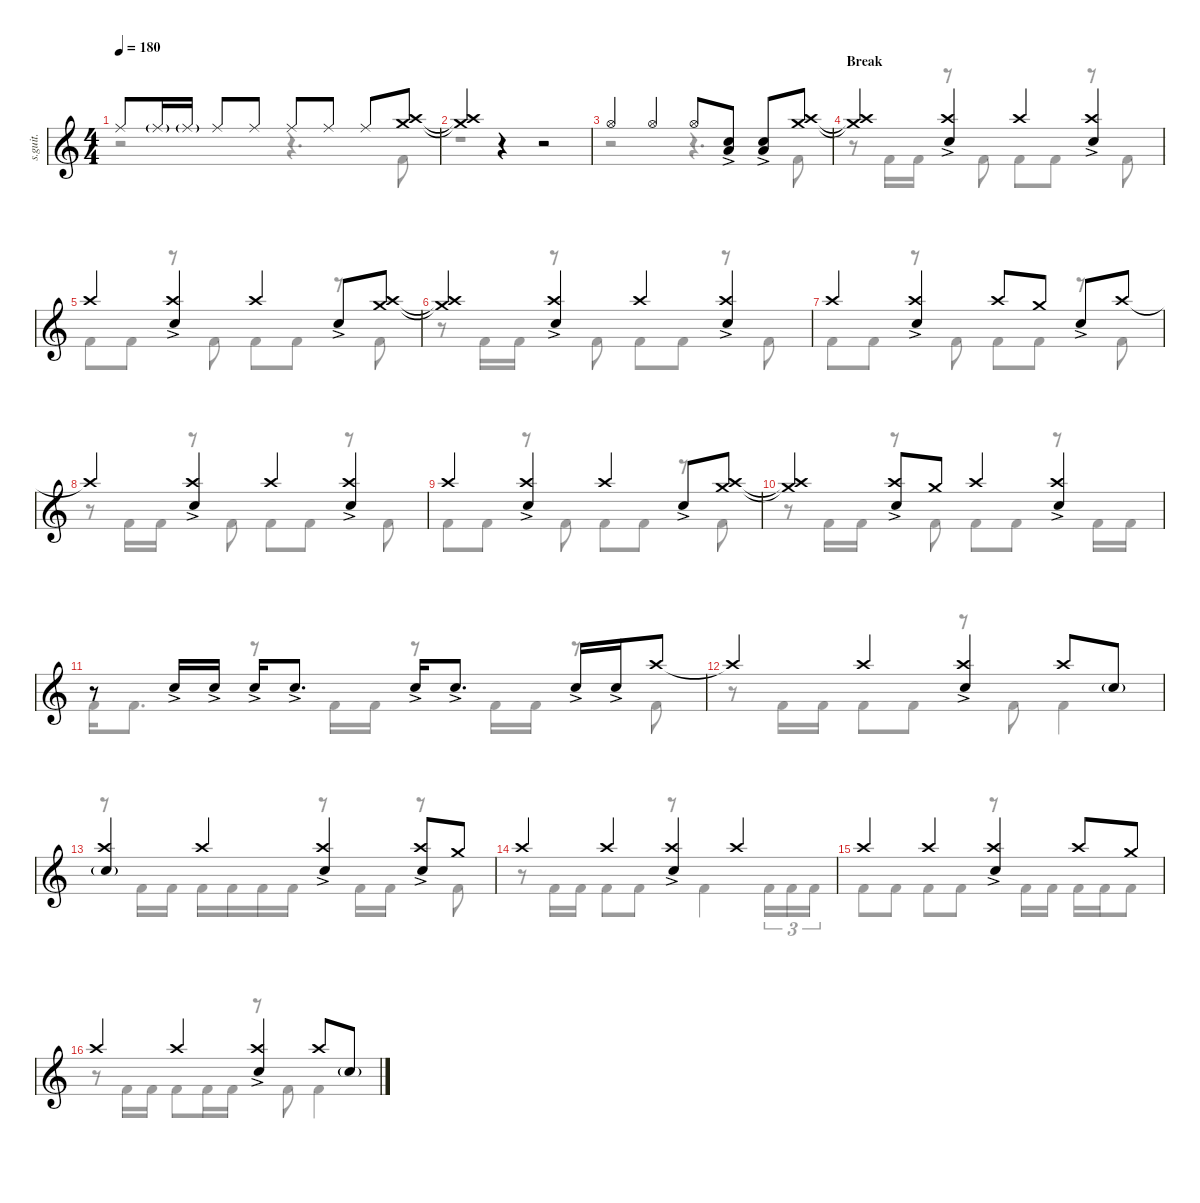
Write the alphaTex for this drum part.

\defaultSystemsLayout 4
\hideDynamics
\bracketExtendMode nobrackets
\track ("Percussion" "s.guit.") {instrument percussion}
\staff {score}
\articulation defaults
\voice
\ts (4 4)
\tempo 180
\clef g2
\ks c "Ride (middle)".8{lyrics (0 "") lyrics (1 "") lyrics (2 "") lyrics (3 "") lyrics (4 "") dy mp} "Ride (middle)"{g}.16{lyrics (0 "") lyrics (1 "") lyrics (2 "") lyrics (3 "") lyrics (4 "")} "Ride (middle)"{g}.16{lyrics (0 "") lyrics (1 "") lyrics (2 "") lyrics (3 "") lyrics (4 "")} "Ride (middle)".8{lyrics (0 "") lyrics (1 "") lyrics (2 "") lyrics (3 "") lyrics (4 "")} "Ride (middle)".8{lyrics (0 "") lyrics (1 "") lyrics (2 "") lyrics (3 "") lyrics (4 "")} "Ride (middle)".8{lyrics (0 "") lyrics (1 "") lyrics (2 "") lyrics (3 "") lyrics (4 "")} "Ride (middle)".8{lyrics (0 "") lyrics (1 "") lyrics (2 "") lyrics (3 "") lyrics (4 "")} "Ride (middle)".8{lyrics (0 "") lyrics (1 "") lyrics (2 "") lyrics (3 "") lyrics (4 "")}
("Crash high (hit)" "Crash medium (hit)").8{lyrics (0 "") lyrics (1 "") lyrics (2 "") lyrics (3 "") lyrics (4 "")} |
("Crash high (hit)"{t} "Crash medium (hit)"{t}).4{lyrics (0 "") lyrics (1 "") lyrics (2 "") lyrics (3 "") lyrics (4 "")} r.4 r.2 |
"Hi-Hat (open)".4{lyrics (0 "") lyrics (1 "") lyrics (2 "") lyrics (3 "") lyrics (4 "") dy f} "Hi-Hat (open)".4{lyrics (0 "") lyrics (1 "") lyrics (2 "") lyrics (3 "") lyrics (4 "")} "Hi-Hat (open)".8{lyrics (0 "") lyrics (1 "") lyrics (2 "") lyrics (3 "") lyrics (4 "")} ("Low Tom (hit)"{ac} "Snare (hit) 2"{ac}).8{lyrics (0 "") lyrics (1 "") lyrics (2 "") lyrics (3 "") lyrics (4 "")} ("Low Tom (hit)"{ac} "Snare (hit) 2"{ac}).8{lyrics (0 "") lyrics (1 "") lyrics (2 "") lyrics (3 "") lyrics (4 "")} ("Crash high (hit)" "Crash medium (hit)").8{lyrics (0 "") lyrics (1 "") lyrics (2 "") lyrics (3 "") lyrics (4 "")} |
\section ("" "Break")
("Crash high (hit)"{t} "Crash medium (hit)"{t}).4{lyrics (0 "") lyrics (1 "") lyrics (2 "") lyrics (3 "") lyrics (4 "")} ("Crash high (hit)" "Snare (hit) 2"{ac}).4{lyrics (0 "") lyrics (1 "") lyrics (2 "") lyrics (3 "") lyrics (4 "")} "Crash high (hit)".4{lyrics (0 "") lyrics (1 "") lyrics (2 "") lyrics (3 "") lyrics (4 "")} ("Crash high (hit)" "Snare (hit) 2"{ac}).4{lyrics (0 "") lyrics (1 "") lyrics (2 "") lyrics (3 "") lyrics (4 "")} |
"Crash high (hit)".4{lyrics (0 "") lyrics (1 "") lyrics (2 "") lyrics (3 "") lyrics (4 "")} ("Crash high (hit)" "Snare (hit) 2"{ac}).4{lyrics (0 "") lyrics (1 "") lyrics (2 "") lyrics (3 "") lyrics (4 "")} "Crash high (hit)".4{lyrics (0 "") lyrics (1 "") lyrics (2 "") lyrics (3 "") lyrics (4 "")} "Snare (hit) 2"{ac}.8{lyrics (0 "") lyrics (1 "") lyrics (2 "") lyrics (3 "") lyrics (4 "")} ("Crash high (hit)" "Crash medium (hit)").8{lyrics (0 "") lyrics (1 "") lyrics (2 "") lyrics (3 "") lyrics (4 "")} |
("Crash high (hit)"{t} "Crash medium (hit)"{t}).4{lyrics (0 "") lyrics (1 "") lyrics (2 "") lyrics (3 "") lyrics (4 "")} ("Crash high (hit)" "Snare (hit) 2"{ac}).4{lyrics (0 "") lyrics (1 "") lyrics (2 "") lyrics (3 "") lyrics (4 "")} "Crash high (hit)".4{lyrics (0 "") lyrics (1 "") lyrics (2 "") lyrics (3 "") lyrics (4 "")} ("Crash high (hit)" "Snare (hit) 2"{ac}).4{lyrics (0 "") lyrics (1 "") lyrics (2 "") lyrics (3 "") lyrics (4 "")} |
"Crash high (hit)".4{lyrics (0 "") lyrics (1 "") lyrics (2 "") lyrics (3 "") lyrics (4 "")} ("Crash high (hit)" "Snare (hit) 2"{ac}).4{lyrics (0 "") lyrics (1 "") lyrics (2 "") lyrics (3 "") lyrics (4 "")} "Crash high (hit)".8{lyrics (0 "") lyrics (1 "") lyrics (2 "") lyrics (3 "") lyrics (4 "")} "Crash medium (hit)".8{lyrics (0 "") lyrics (1 "") lyrics (2 "") lyrics (3 "") lyrics (4 "")} "Snare (hit) 2"{ac}.8{lyrics (0 "") lyrics (1 "") lyrics (2 "") lyrics (3 "") lyrics (4 "")} "Crash high (hit)".8{lyrics (0 "") lyrics (1 "") lyrics (2 "") lyrics (3 "") lyrics (4 "")} |
"Crash high (hit)"{t}.4{lyrics (0 "") lyrics (1 "") lyrics (2 "") lyrics (3 "") lyrics (4 "")} ("Crash high (hit)" "Snare (hit) 2"{ac}).4{lyrics (0 "") lyrics (1 "") lyrics (2 "") lyrics (3 "") lyrics (4 "")} "Crash high (hit)".4{lyrics (0 "") lyrics (1 "") lyrics (2 "") lyrics (3 "") lyrics (4 "")} ("Crash high (hit)" "Snare (hit) 2"{ac}).4{lyrics (0 "") lyrics (1 "") lyrics (2 "") lyrics (3 "") lyrics (4 "")} |
"Crash high (hit)".4{lyrics (0 "") lyrics (1 "") lyrics (2 "") lyrics (3 "") lyrics (4 "")} ("Crash high (hit)" "Snare (hit) 2"{ac}).4{lyrics (0 "") lyrics (1 "") lyrics (2 "") lyrics (3 "") lyrics (4 "")} "Crash high (hit)".4{lyrics (0 "") lyrics (1 "") lyrics (2 "") lyrics (3 "") lyrics (4 "")} "Snare (hit) 2"{ac}.8{lyrics (0 "") lyrics (1 "") lyrics (2 "") lyrics (3 "") lyrics (4 "")} ("Crash high (hit)" "Crash medium (hit)").8{lyrics (0 "") lyrics (1 "") lyrics (2 "") lyrics (3 "") lyrics (4 "")} |
("Crash high (hit)"{t} "Crash medium (hit)"{t}).4{lyrics (0 "") lyrics (1 "") lyrics (2 "") lyrics (3 "") lyrics (4 "")} ("Crash high (hit)" "Snare (hit) 2"{ac}).8{lyrics (0 "") lyrics (1 "") lyrics (2 "") lyrics (3 "") lyrics (4 "")} "Crash medium (hit)".8{lyrics (0 "") lyrics (1 "") lyrics (2 "") lyrics (3 "") lyrics (4 "")} "Crash high (hit)".4{lyrics (0 "") lyrics (1 "") lyrics (2 "") lyrics (3 "") lyrics (4 "")} ("Snare (hit) 2"{ac} "Crash high (hit)").4{lyrics (0 "") lyrics (1 "") lyrics (2 "") lyrics (3 "") lyrics (4 "")} |
r.8 "Snare (hit) 2"{ac}.16{lyrics (0 "") lyrics (1 "") lyrics (2 "") lyrics (3 "") lyrics (4 "")} "Snare (hit) 2"{ac}.16{lyrics (0 "") lyrics (1 "") lyrics (2 "") lyrics (3 "") lyrics (4 "")} "Snare (hit) 2"{ac}.16{lyrics (0 "") lyrics (1 "") lyrics (2 "") lyrics (3 "") lyrics (4 "")} "Snare (hit) 2"{ac}.8{d lyrics (0 "") lyrics (1 "") lyrics (2 "") lyrics (3 "") lyrics (4 "")} "Snare (hit) 2"{ac}.16{lyrics (0 "") lyrics (1 "") lyrics (2 "") lyrics (3 "") lyrics (4 "")} "Snare (hit) 2"{ac}.8{d lyrics (0 "") lyrics (1 "") lyrics (2 "") lyrics (3 "") lyrics (4 "")} "Snare (hit) 2"{ac}.16{lyrics (0 "") lyrics (1 "") lyrics (2 "") lyrics (3 "") lyrics (4 "")} "Snare (hit) 2"{ac}.16{lyrics (0 "") lyrics (1 "") lyrics (2 "") lyrics (3 "") lyrics (4 "")} "Crash high (hit)".8{lyrics (0 "") lyrics (1 "") lyrics (2 "") lyrics (3 "") lyrics (4 "")} |
"Crash high (hit)"{t}.4{lyrics (0 "") lyrics (1 "") lyrics (2 "") lyrics (3 "") lyrics (4 "")} "Crash high (hit)".4{lyrics (0 "") lyrics (1 "") lyrics (2 "") lyrics (3 "") lyrics (4 "")} ("Snare (hit) 2"{ac} "Crash high (hit)").4{lyrics (0 "") lyrics (1 "") lyrics (2 "") lyrics (3 "") lyrics (4 "")} "Crash high (hit)".8{lyrics (0 "") lyrics (1 "") lyrics (2 "") lyrics (3 "") lyrics (4 "")} "Snare (hit) 2"{g}.8{lyrics (0 "") lyrics (1 "") lyrics (2 "") lyrics (3 "") lyrics (4 "")} |
("Snare (hit) 2"{g} "Crash high (hit)").4{lyrics (0 "") lyrics (1 "") lyrics (2 "") lyrics (3 "") lyrics (4 "")} "Crash high (hit)".4{lyrics (0 "") lyrics (1 "") lyrics (2 "") lyrics (3 "") lyrics (4 "")} ("Crash high (hit)" "Snare (hit) 2"{ac}).4{lyrics (0 "") lyrics (1 "") lyrics (2 "") lyrics (3 "") lyrics (4 "")} ("Crash high (hit)" "Snare (hit) 2"{ac}).8{lyrics (0 "") lyrics (1 "") lyrics (2 "") lyrics (3 "") lyrics (4 "")} "Crash medium (hit)".8{lyrics (0 "") lyrics (1 "") lyrics (2 "") lyrics (3 "") lyrics (4 "")} |
"Crash high (hit)".4{lyrics (0 "") lyrics (1 "") lyrics (2 "") lyrics (3 "") lyrics (4 "")} "Crash high (hit)".4{lyrics (0 "") lyrics (1 "") lyrics (2 "") lyrics (3 "") lyrics (4 "")} ("Crash high (hit)" "Snare (hit) 2"{ac}).4{lyrics (0 "") lyrics (1 "") lyrics (2 "") lyrics (3 "") lyrics (4 "")} "Crash high (hit)".4{lyrics (0 "") lyrics (1 "") lyrics (2 "") lyrics (3 "") lyrics (4 "")} |
"Crash high (hit)".4{lyrics (0 "") lyrics (1 "") lyrics (2 "") lyrics (3 "") lyrics (4 "")} "Crash high (hit)".4{lyrics (0 "") lyrics (1 "") lyrics (2 "") lyrics (3 "") lyrics (4 "")} ("Crash high (hit)" "Snare (hit) 2"{ac}).4{lyrics (0 "") lyrics (1 "") lyrics (2 "") lyrics (3 "") lyrics (4 "")} "Crash high (hit)".8{lyrics (0 "") lyrics (1 "") lyrics (2 "") lyrics (3 "") lyrics (4 "")} "Crash medium (hit)".8{lyrics (0 "") lyrics (1 "") lyrics (2 "") lyrics (3 "") lyrics (4 "")} |
"Crash high (hit)".4{lyrics (0 "") lyrics (1 "") lyrics (2 "") lyrics (3 "") lyrics (4 "")} "Crash high (hit)".4{lyrics (0 "") lyrics (1 "") lyrics (2 "") lyrics (3 "") lyrics (4 "")} ("Snare (hit) 2"{ac} "Crash high (hit)").4{lyrics (0 "") lyrics (1 "") lyrics (2 "") lyrics (3 "") lyrics (4 "")} "Crash high (hit)".8{lyrics (0 "") lyrics (1 "") lyrics (2 "") lyrics (3 "") lyrics (4 "")} "Snare (hit) 2"{g}.8{lyrics (0 "") lyrics (1 "") lyrics (2 "") lyrics (3 "") lyrics (4 "")}
\voice
\clef g2
\ottava regular
\simile none
\ks c
r.2{dy mp} r.4{d} "Kick (hit) 2".8{lyrics (0 "") lyrics (1 "") lyrics (2 "") lyrics (3 "") lyrics (4 "")} |
r.1 |
r.2 r.4{d} "Kick (hit) 2".8{lyrics (0 "") lyrics (1 "") lyrics (2 "") lyrics (3 "") lyrics (4 "") dy f} |
r.8 "Kick (hit) 2".16{lyrics (0 "") lyrics (1 "") lyrics (2 "") lyrics (3 "") lyrics (4 "")} "Kick (hit) 2".16{lyrics (0 "") lyrics (1 "") lyrics (2 "") lyrics (3 "") lyrics (4 "")} r.8 "Kick (hit) 2".8{lyrics (0 "") lyrics (1 "") lyrics (2 "") lyrics (3 "") lyrics (4 "")} "Kick (hit) 2".8{lyrics (0 "") lyrics (1 "") lyrics (2 "") lyrics (3 "") lyrics (4 "")} "Kick (hit) 2".8{lyrics (0 "") lyrics (1 "") lyrics (2 "") lyrics (3 "") lyrics (4 "")} r.8 "Kick (hit) 2".8{lyrics (0 "") lyrics (1 "") lyrics (2 "") lyrics (3 "") lyrics (4 "")} |
"Kick (hit) 2".8{lyrics (0 "") lyrics (1 "") lyrics (2 "") lyrics (3 "") lyrics (4 "")} "Kick (hit) 2".8{lyrics (0 "") lyrics (1 "") lyrics (2 "") lyrics (3 "") lyrics (4 "")} r.8 "Kick (hit) 2".8{lyrics (0 "") lyrics (1 "") lyrics (2 "") lyrics (3 "") lyrics (4 "")} "Kick (hit) 2".8{lyrics (0 "") lyrics (1 "") lyrics (2 "") lyrics (3 "") lyrics (4 "")} "Kick (hit) 2".8{lyrics (0 "") lyrics (1 "") lyrics (2 "") lyrics (3 "") lyrics (4 "")} r.8 "Kick (hit) 2".8{lyrics (0 "") lyrics (1 "") lyrics (2 "") lyrics (3 "") lyrics (4 "")} |
r.8 "Kick (hit) 2".16{lyrics (0 "") lyrics (1 "") lyrics (2 "") lyrics (3 "") lyrics (4 "")} "Kick (hit) 2".16{lyrics (0 "") lyrics (1 "") lyrics (2 "") lyrics (3 "") lyrics (4 "")} r.8 "Kick (hit) 2".8{lyrics (0 "") lyrics (1 "") lyrics (2 "") lyrics (3 "") lyrics (4 "")} "Kick (hit) 2".8{lyrics (0 "") lyrics (1 "") lyrics (2 "") lyrics (3 "") lyrics (4 "")} "Kick (hit) 2".8{lyrics (0 "") lyrics (1 "") lyrics (2 "") lyrics (3 "") lyrics (4 "")} r.8 "Kick (hit) 2".8{lyrics (0 "") lyrics (1 "") lyrics (2 "") lyrics (3 "") lyrics (4 "")} |
"Kick (hit) 2".8{lyrics (0 "") lyrics (1 "") lyrics (2 "") lyrics (3 "") lyrics (4 "")} "Kick (hit) 2".8{lyrics (0 "") lyrics (1 "") lyrics (2 "") lyrics (3 "") lyrics (4 "")} r.8 "Kick (hit) 2".8{lyrics (0 "") lyrics (1 "") lyrics (2 "") lyrics (3 "") lyrics (4 "")} "Kick (hit) 2".8{lyrics (0 "") lyrics (1 "") lyrics (2 "") lyrics (3 "") lyrics (4 "")} "Kick (hit) 2".8{lyrics (0 "") lyrics (1 "") lyrics (2 "") lyrics (3 "") lyrics (4 "")} r.8 "Kick (hit) 2".8{lyrics (0 "") lyrics (1 "") lyrics (2 "") lyrics (3 "") lyrics (4 "")} |
r.8 "Kick (hit) 2".16{lyrics (0 "") lyrics (1 "") lyrics (2 "") lyrics (3 "") lyrics (4 "")} "Kick (hit) 2".16{lyrics (0 "") lyrics (1 "") lyrics (2 "") lyrics (3 "") lyrics (4 "")} r.8 "Kick (hit) 2".8{lyrics (0 "") lyrics (1 "") lyrics (2 "") lyrics (3 "") lyrics (4 "")} "Kick (hit) 2".8{lyrics (0 "") lyrics (1 "") lyrics (2 "") lyrics (3 "") lyrics (4 "")} "Kick (hit) 2".8{lyrics (0 "") lyrics (1 "") lyrics (2 "") lyrics (3 "") lyrics (4 "")} r.8 "Kick (hit) 2".8{lyrics (0 "") lyrics (1 "") lyrics (2 "") lyrics (3 "") lyrics (4 "")} |
"Kick (hit) 2".8{lyrics (0 "") lyrics (1 "") lyrics (2 "") lyrics (3 "") lyrics (4 "")} "Kick (hit) 2".8{lyrics (0 "") lyrics (1 "") lyrics (2 "") lyrics (3 "") lyrics (4 "")} r.8 "Kick (hit) 2".8{lyrics (0 "") lyrics (1 "") lyrics (2 "") lyrics (3 "") lyrics (4 "")} "Kick (hit) 2".8{lyrics (0 "") lyrics (1 "") lyrics (2 "") lyrics (3 "") lyrics (4 "")} "Kick (hit) 2".8{lyrics (0 "") lyrics (1 "") lyrics (2 "") lyrics (3 "") lyrics (4 "")} r.8 "Kick (hit) 2".8{lyrics (0 "") lyrics (1 "") lyrics (2 "") lyrics (3 "") lyrics (4 "")} |
r.8 "Kick (hit) 2".16{lyrics (0 "") lyrics (1 "") lyrics (2 "") lyrics (3 "") lyrics (4 "")} "Kick (hit) 2".16{lyrics (0 "") lyrics (1 "") lyrics (2 "") lyrics (3 "") lyrics (4 "")} r.8 "Kick (hit) 2".8{lyrics (0 "") lyrics (1 "") lyrics (2 "") lyrics (3 "") lyrics (4 "")} "Kick (hit) 2".8{lyrics (0 "") lyrics (1 "") lyrics (2 "") lyrics (3 "") lyrics (4 "")} "Kick (hit) 2".8{lyrics (0 "") lyrics (1 "") lyrics (2 "") lyrics (3 "") lyrics (4 "")} r.8 "Kick (hit) 2".16{lyrics (0 "") lyrics (1 "") lyrics (2 "") lyrics (3 "") lyrics (4 "")} "Kick (hit) 2".16{lyrics (0 "") lyrics (1 "") lyrics (2 "") lyrics (3 "") lyrics (4 "")} |
"Kick (hit) 2".16{lyrics (0 "") lyrics (1 "") lyrics (2 "") lyrics (3 "") lyrics (4 "")} "Kick (hit) 2".8{d lyrics (0 "") lyrics (1 "") lyrics (2 "") lyrics (3 "") lyrics (4 "")} r.8 "Kick (hit) 2".16{lyrics (0 "") lyrics (1 "") lyrics (2 "") lyrics (3 "") lyrics (4 "")} "Kick (hit) 2".16{lyrics (0 "") lyrics (1 "") lyrics (2 "") lyrics (3 "") lyrics (4 "")} r.8 "Kick (hit) 2".16{lyrics (0 "") lyrics (1 "") lyrics (2 "") lyrics (3 "") lyrics (4 "")} "Kick (hit) 2".16{lyrics (0 "") lyrics (1 "") lyrics (2 "") lyrics (3 "") lyrics (4 "")} r.8 "Kick (hit) 2".8{lyrics (0 "") lyrics (1 "") lyrics (2 "") lyrics (3 "") lyrics (4 "")} |
r.8 "Kick (hit) 2".16{lyrics (0 "") lyrics (1 "") lyrics (2 "") lyrics (3 "") lyrics (4 "")} "Kick (hit) 2".16{lyrics (0 "") lyrics (1 "") lyrics (2 "") lyrics (3 "") lyrics (4 "")} "Kick (hit) 2".8{lyrics (0 "") lyrics (1 "") lyrics (2 "") lyrics (3 "") lyrics (4 "")} "Kick (hit) 2".8{lyrics (0 "") lyrics (1 "") lyrics (2 "") lyrics (3 "") lyrics (4 "")} r.8 "Kick (hit) 2".8{lyrics (0 "") lyrics (1 "") lyrics (2 "") lyrics (3 "") lyrics (4 "")} "Kick (hit) 2".4{lyrics (0 "") lyrics (1 "") lyrics (2 "") lyrics (3 "") lyrics (4 "")} |
r.8 "Kick (hit) 2".16{lyrics (0 "") lyrics (1 "") lyrics (2 "") lyrics (3 "") lyrics (4 "")} "Kick (hit) 2".16{lyrics (0 "") lyrics (1 "") lyrics (2 "") lyrics (3 "") lyrics (4 "")} "Kick (hit) 2".16{lyrics (0 "") lyrics (1 "") lyrics (2 "") lyrics (3 "") lyrics (4 "")} "Kick (hit) 2".16{lyrics (0 "") lyrics (1 "") lyrics (2 "") lyrics (3 "") lyrics (4 "")} "Kick (hit) 2".16{lyrics (0 "") lyrics (1 "") lyrics (2 "") lyrics (3 "") lyrics (4 "")} "Kick (hit) 2".16{lyrics (0 "") lyrics (1 "") lyrics (2 "") lyrics (3 "") lyrics (4 "")} r.8 "Kick (hit) 2".16{lyrics (0 "") lyrics (1 "") lyrics (2 "") lyrics (3 "") lyrics (4 "")} "Kick (hit) 2".16{lyrics (0 "") lyrics (1 "") lyrics (2 "") lyrics (3 "") lyrics (4 "")} r.8 "Kick (hit) 2".8{lyrics (0 "") lyrics (1 "") lyrics (2 "") lyrics (3 "") lyrics (4 "")} |
r.8 "Kick (hit) 2".16{lyrics (0 "") lyrics (1 "") lyrics (2 "") lyrics (3 "") lyrics (4 "")} "Kick (hit) 2".16{lyrics (0 "") lyrics (1 "") lyrics (2 "") lyrics (3 "") lyrics (4 "")} "Kick (hit) 2".8{lyrics (0 "") lyrics (1 "") lyrics (2 "") lyrics (3 "") lyrics (4 "")} "Kick (hit) 2".8{lyrics (0 "") lyrics (1 "") lyrics (2 "") lyrics (3 "") lyrics (4 "")} r.8 "Kick (hit) 2".4{lyrics (0 "") lyrics (1 "") lyrics (2 "") lyrics (3 "") lyrics (4 "")} "Kick (hit) 2".16{tu (3 2) lyrics (0 "") lyrics (1 "") lyrics (2 "") lyrics (3 "") lyrics (4 "")} "Kick (hit) 2".16{tu (3 2) lyrics (0 "") lyrics (1 "") lyrics (2 "") lyrics (3 "") lyrics (4 "")} "Kick (hit) 2".16{tu (3 2) lyrics (0 "") lyrics (1 "") lyrics (2 "") lyrics (3 "") lyrics (4 "")} |
"Kick (hit) 2".8{lyrics (0 "") lyrics (1 "") lyrics (2 "") lyrics (3 "") lyrics (4 "")} "Kick (hit) 2".8{lyrics (0 "") lyrics (1 "") lyrics (2 "") lyrics (3 "") lyrics (4 "")} "Kick (hit) 2".8{lyrics (0 "") lyrics (1 "") lyrics (2 "") lyrics (3 "") lyrics (4 "")} "Kick (hit) 2".8{lyrics (0 "") lyrics (1 "") lyrics (2 "") lyrics (3 "") lyrics (4 "")} r.8 "Kick (hit) 2".16{lyrics (0 "") lyrics (1 "") lyrics (2 "") lyrics (3 "") lyrics (4 "")} "Kick (hit) 2".16{lyrics (0 "") lyrics (1 "") lyrics (2 "") lyrics (3 "") lyrics (4 "")} "Kick (hit) 2".16{lyrics (0 "") lyrics (1 "") lyrics (2 "") lyrics (3 "") lyrics (4 "")} "Kick (hit) 2".16{lyrics (0 "") lyrics (1 "") lyrics (2 "") lyrics (3 "") lyrics (4 "")} "Kick (hit) 2".8{lyrics (0 "") lyrics (1 "") lyrics (2 "") lyrics (3 "") lyrics (4 "")} |
r.8 "Kick (hit) 2".16{lyrics (0 "") lyrics (1 "") lyrics (2 "") lyrics (3 "") lyrics (4 "")} "Kick (hit) 2".16{lyrics (0 "") lyrics (1 "") lyrics (2 "") lyrics (3 "") lyrics (4 "")} "Kick (hit) 2".8{lyrics (0 "") lyrics (1 "") lyrics (2 "") lyrics (3 "") lyrics (4 "")} "Kick (hit) 2".16{lyrics (0 "") lyrics (1 "") lyrics (2 "") lyrics (3 "") lyrics (4 "")} "Kick (hit) 2".16{lyrics (0 "") lyrics (1 "") lyrics (2 "") lyrics (3 "") lyrics (4 "")} r.8 "Kick (hit) 2".8{lyrics (0 "") lyrics (1 "") lyrics (2 "") lyrics (3 "") lyrics (4 "")} "Kick (hit) 2".4{lyrics (0 "") lyrics (1 "") lyrics (2 "") lyrics (3 "") lyrics (4 "")}
